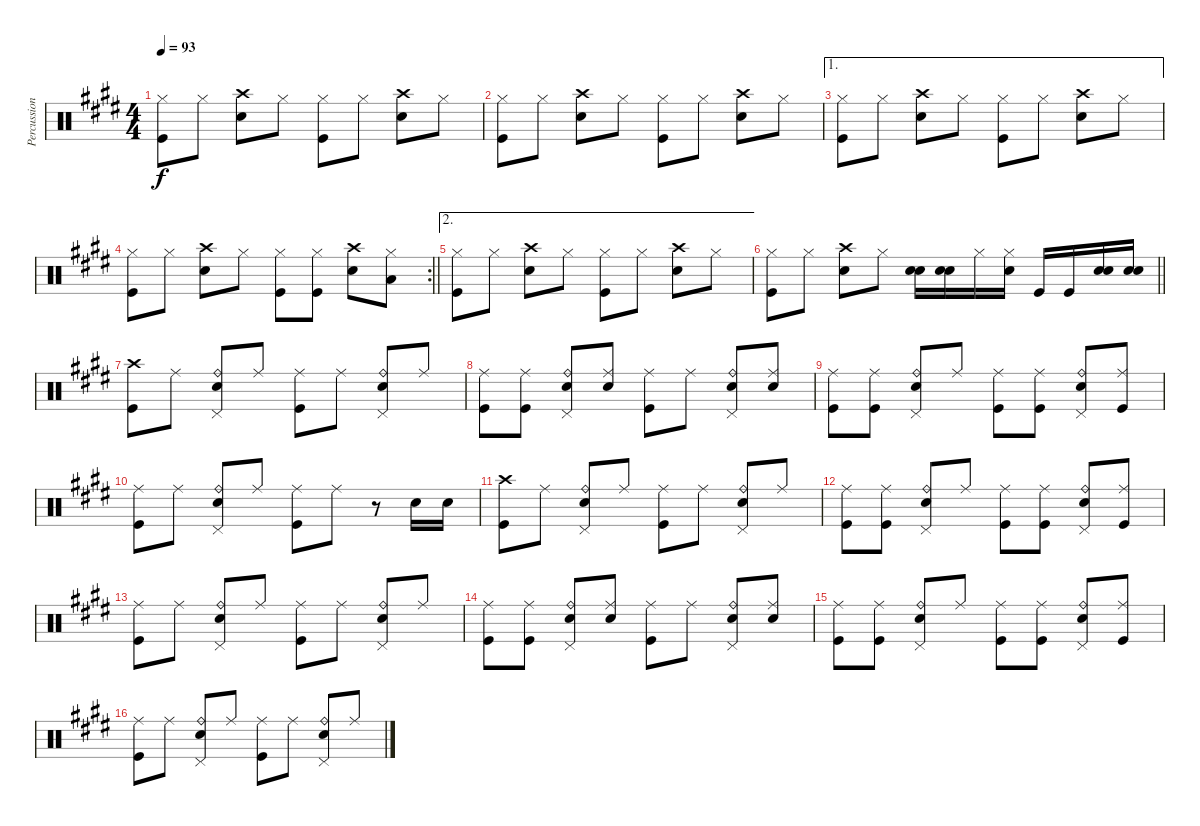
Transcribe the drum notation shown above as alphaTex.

\track ("Percussion" "Percussion") {instrument percussion}
\staff {score}
\articulation defaults
\ts (4 4)
\tempo 93
\clef neutral
\ks c#minor
("Hi-Hat (closed)" "Kick (hit)").8{dy f} "Hi-Hat (closed)".8 ("Crash high (hit)" "Snare (hit) 2").8 "Hi-Hat (closed)".8 ("Hi-Hat (closed)" "Kick (hit)").8 "Hi-Hat (closed)".8 ("Crash high (hit)" "Snare (hit) 2").8 "Hi-Hat (closed)".8 |
("Hi-Hat (closed)" "Kick (hit)").8 "Hi-Hat (closed)".8 ("Crash high (hit)" "Snare (hit) 2").8 "Hi-Hat (closed)".8 ("Hi-Hat (closed)" "Kick (hit)").8 "Hi-Hat (closed)".8 ("Crash high (hit)" "Snare (hit) 2").8 "Hi-Hat (closed)".8 |
\ae 1
("Hi-Hat (closed)" "Kick (hit)").8 "Hi-Hat (closed)".8 ("Crash high (hit)" "Snare (hit) 2").8 "Hi-Hat (closed)".8 ("Hi-Hat (closed)" "Kick (hit)").8 "Hi-Hat (closed)".8 ("Crash high (hit)" "Snare (hit) 2").8 "Hi-Hat (closed)".8 |
\rc 2
\barLineRight lightlight
("Hi-Hat (closed)" "Kick (hit)").8 "Hi-Hat (closed)".8 ("Crash high (hit)" "Snare (hit) 2").8 "Hi-Hat (closed)".8 ("Hi-Hat (closed)" "Kick (hit)").8 ("Hi-Hat (closed)" "Kick (hit)").8 ("Crash high (hit)" "Snare (hit) 2").8 ("Hi-Hat (closed)" "Low Floor Tom (hit)").8 |
\ae 2
("Hi-Hat (closed)" "Kick (hit)").8 "Hi-Hat (closed)".8 ("Crash high (hit)" "Snare (hit) 2").8 "Hi-Hat (closed)".8 ("Hi-Hat (closed)" "Kick (hit)").8 "Hi-Hat (closed)".8 ("Crash high (hit)" "Snare (hit) 2").8 "Hi-Hat (closed)".8 |
\barLineRight lightlight
("Hi-Hat (closed)" "Kick (hit)").8 "Hi-Hat (closed)".8 ("Crash high (hit)" "Snare (hit) 2").8 "Hi-Hat (closed)".8 ("Snare (hit) 2" "Snare (hit) 2").16 ("Snare (hit) 2" "Snare (hit) 2").16 "Hi-Hat (closed)".16 ("Hi-Hat (closed)" "Snare (hit) 2").16 "Kick (hit)".16 "Kick (hit)".16 ("Snare (hit) 2" "Snare (hit) 2").16 ("Snare (hit) 2" "Snare (hit) 2").16 |
("Crash high (hit)" "Kick (hit)").8 "Ride (middle)".8 ("Ride (bell)" "Snare (hit) 2" "Pedal Hi-Hat (hit)").8 "Ride (middle)".8 ("Ride (middle)" "Kick (hit)").8 "Ride (middle)".8 ("Ride (bell)" "Snare (hit) 2" "Pedal Hi-Hat (hit)").8 "Ride (middle)".8 |
("Ride (middle)" "Kick (hit)").8 ("Ride (middle)" "Kick (hit)").8 ("Ride (bell)" "Snare (hit) 2" "Pedal Hi-Hat (hit)").8 ("Ride (middle)" "Snare (hit) 2").8 ("Ride (middle)" "Kick (hit)").8 "Ride (middle)".8 ("Ride (bell)" "Snare (hit) 2" "Pedal Hi-Hat (hit)").8 ("Ride (middle)" "Snare (hit) 2").8 |
("Ride (middle)" "Kick (hit)").8 ("Ride (middle)" "Kick (hit)").8 ("Ride (bell)" "Snare (hit) 2" "Pedal Hi-Hat (hit)").8 "Ride (middle)".8 ("Ride (middle)" "Kick (hit)").8 ("Ride (middle)" "Kick (hit)").8 ("Ride (bell)" "Snare (hit) 2" "Pedal Hi-Hat (hit)").8 ("Ride (middle)" "Kick (hit)").8 |
("Ride (middle)" "Kick (hit)").8 "Ride (middle)".8 ("Ride (bell)" "Snare (hit) 2" "Pedal Hi-Hat (hit)").8 "Ride (middle)".8 ("Ride (middle)" "Kick (hit)").8 "Ride (middle)".8 r.8 "Snare (hit) 2".16 "Snare (hit) 2".16 |
("Crash high (hit)" "Kick (hit)").8 "Ride (middle)".8 ("Ride (bell)" "Snare (hit) 2" "Pedal Hi-Hat (hit)").8 "Ride (middle)".8 ("Ride (middle)" "Kick (hit)").8 "Ride (middle)".8 ("Ride (bell)" "Snare (hit) 2" "Pedal Hi-Hat (hit)").8 "Ride (middle)".8 |
("Ride (middle)" "Kick (hit)").8 ("Ride (middle)" "Kick (hit)").8 ("Ride (bell)" "Snare (hit) 2" "Pedal Hi-Hat (hit)").8 "Ride (middle)".8 ("Ride (middle)" "Kick (hit)").8 ("Ride (middle)" "Kick (hit)").8 ("Ride (bell)" "Snare (hit) 2" "Pedal Hi-Hat (hit)").8 ("Ride (middle)" "Kick (hit)").8 |
("Ride (middle)" "Kick (hit)").8 "Ride (middle)".8 ("Ride (bell)" "Snare (hit) 2" "Pedal Hi-Hat (hit)").8 "Ride (middle)".8 ("Ride (middle)" "Kick (hit)").8 "Ride (middle)".8 ("Ride (bell)" "Snare (hit) 2" "Pedal Hi-Hat (hit)").8 "Ride (middle)".8 |
("Ride (middle)" "Kick (hit)").8 ("Ride (middle)" "Kick (hit)").8 ("Ride (bell)" "Snare (hit) 2" "Pedal Hi-Hat (hit)").8 ("Ride (middle)" "Snare (hit) 2").8 ("Ride (middle)" "Kick (hit)").8 "Ride (middle)".8 ("Ride (bell)" "Snare (hit) 2" "Pedal Hi-Hat (hit)").8 ("Ride (middle)" "Snare (hit) 2").8 |
("Ride (middle)" "Kick (hit)").8 ("Ride (middle)" "Kick (hit)").8 ("Ride (bell)" "Snare (hit) 2" "Pedal Hi-Hat (hit)").8 "Ride (middle)".8 ("Ride (middle)" "Kick (hit)").8 ("Ride (middle)" "Kick (hit)").8 ("Ride (bell)" "Snare (hit) 2" "Pedal Hi-Hat (hit)").8 ("Ride (middle)" "Kick (hit)").8 |
("Ride (middle)" "Kick (hit)").8 "Ride (middle)".8 ("Ride (bell)" "Snare (hit) 2" "Pedal Hi-Hat (hit)").8 "Ride (middle)".8 ("Ride (middle)" "Kick (hit)").8 "Ride (middle)".8 ("Ride (bell)" "Snare (hit) 2" "Pedal Hi-Hat (hit)").8 "Ride (middle)".8
